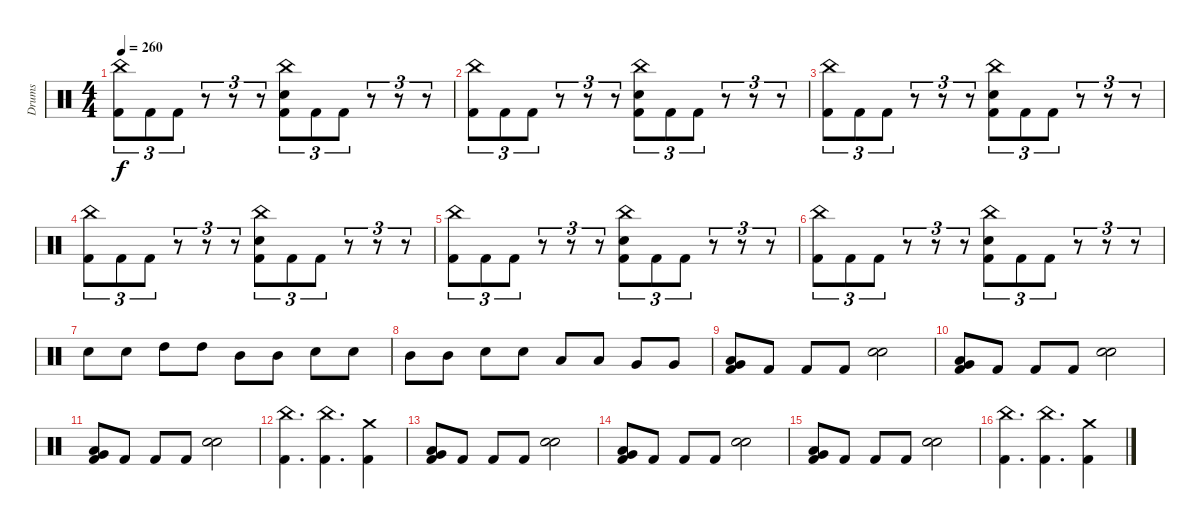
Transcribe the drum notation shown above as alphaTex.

\track ("Drums" "Drums") {instrument percussion}
\staff {score}
\articulation defaults
\ts (4 4)
\tempo 260
\clef neutral
\ks c
("China (hit)" "Kick (hit) 2").8{tu (3 2) dy f} "Kick (hit) 2".8{tu (3 2)} "Kick (hit) 2".8{tu (3 2)} r.8{tu (3 2)} r.8{tu (3 2)} r.8{tu (3 2)} ("China (hit)" "Electric Snare (hit)" "Kick (hit) 2").8{tu (3 2)} "Kick (hit) 2".8{tu (3 2)} "Kick (hit) 2".8{tu (3 2)} r.8{tu (3 2)} r.8{tu (3 2)} r.8{tu (3 2)} |
("China (hit)" "Kick (hit) 2").8{tu (3 2)} "Kick (hit) 2".8{tu (3 2)} "Kick (hit) 2".8{tu (3 2)} r.8{tu (3 2)} r.8{tu (3 2)} r.8{tu (3 2)} ("China (hit)" "Electric Snare (hit)" "Kick (hit) 2").8{tu (3 2)} "Kick (hit) 2".8{tu (3 2)} "Kick (hit) 2".8{tu (3 2)} r.8{tu (3 2)} r.8{tu (3 2)} r.8{tu (3 2)} |
("China (hit)" "Kick (hit) 2").8{tu (3 2)} "Kick (hit) 2".8{tu (3 2)} "Kick (hit) 2".8{tu (3 2)} r.8{tu (3 2)} r.8{tu (3 2)} r.8{tu (3 2)} ("China (hit)" "Electric Snare (hit)" "Kick (hit) 2").8{tu (3 2)} "Kick (hit) 2".8{tu (3 2)} "Kick (hit) 2".8{tu (3 2)} r.8{tu (3 2)} r.8{tu (3 2)} r.8{tu (3 2)} |
("China (hit)" "Kick (hit) 2").8{tu (3 2)} "Kick (hit) 2".8{tu (3 2)} "Kick (hit) 2".8{tu (3 2)} r.8{tu (3 2)} r.8{tu (3 2)} r.8{tu (3 2)} ("China (hit)" "Electric Snare (hit)" "Kick (hit) 2").8{tu (3 2)} "Kick (hit) 2".8{tu (3 2)} "Kick (hit) 2".8{tu (3 2)} r.8{tu (3 2)} r.8{tu (3 2)} r.8{tu (3 2)} |
("China (hit)" "Kick (hit) 2").8{tu (3 2)} "Kick (hit) 2".8{tu (3 2)} "Kick (hit) 2".8{tu (3 2)} r.8{tu (3 2)} r.8{tu (3 2)} r.8{tu (3 2)} ("China (hit)" "Electric Snare (hit)" "Kick (hit) 2").8{tu (3 2)} "Kick (hit) 2".8{tu (3 2)} "Kick (hit) 2".8{tu (3 2)} r.8{tu (3 2)} r.8{tu (3 2)} r.8{tu (3 2)} |
("China (hit)" "Kick (hit) 2").8{tu (3 2)} "Kick (hit) 2".8{tu (3 2)} "Kick (hit) 2".8{tu (3 2)} r.8{tu (3 2)} r.8{tu (3 2)} r.8{tu (3 2)} ("China (hit)" "Electric Snare (hit)" "Kick (hit) 2").8{tu (3 2)} "Kick (hit) 2".8{tu (3 2)} "Kick (hit) 2".8{tu (3 2)} r.8{tu (3 2)} r.8{tu (3 2)} r.8{tu (3 2)} |
"Electric Snare (hit)".8 "Electric Snare (hit)".8 "High Tom (hit)".8 "High Tom (hit)".8 "Mid Tom (hit)".8 "Mid Tom (hit)".8 "Electric Snare (hit)".8 "Electric Snare (hit)".8 |
"Mid Tom (hit)".8 "Mid Tom (hit)".8 "Electric Snare (hit)".8 "Electric Snare (hit)".8 "Low Tom (hit)".8 "Low Tom (hit)".8 "Very Low Tom (hit)".8 "Very Low Tom (hit)".8 |
("Low Tom (hit)" "Very Low Tom (hit)" "Kick (hit) 2").8 "Kick (hit) 2".8 "Kick (hit) 2".8 "Kick (hit) 2".8 ("Electric Snare (hit)" "Electric Snare (hit)").2{bu 480} |
("Low Tom (hit)" "Very Low Tom (hit)" "Kick (hit) 2").8 "Kick (hit) 2".8 "Kick (hit) 2".8 "Kick (hit) 2".8 ("Electric Snare (hit)" "Electric Snare (hit)").2{bu 480} |
("Low Tom (hit)" "Very Low Tom (hit)" "Kick (hit) 2").8 "Kick (hit) 2".8 "Kick (hit) 2".8 "Kick (hit) 2".8 ("Electric Snare (hit)" "Electric Snare (hit)").2{bu 480} |
("China (hit)" "Kick (hit) 2").4{d} ("China (hit)" "Kick (hit) 2").4{d} ("Crash medium (hit)" "Kick (hit) 2").4 |
("Low Tom (hit)" "Very Low Tom (hit)" "Kick (hit) 2").8 "Kick (hit) 2".8 "Kick (hit) 2".8 "Kick (hit) 2".8 ("Electric Snare (hit)" "Electric Snare (hit)").2{bu 480} |
("Low Tom (hit)" "Very Low Tom (hit)" "Kick (hit) 2").8 "Kick (hit) 2".8 "Kick (hit) 2".8 "Kick (hit) 2".8 ("Electric Snare (hit)" "Electric Snare (hit)").2{bu 480} |
("Low Tom (hit)" "Very Low Tom (hit)" "Kick (hit) 2").8 "Kick (hit) 2".8 "Kick (hit) 2".8 "Kick (hit) 2".8 ("Electric Snare (hit)" "Electric Snare (hit)").2{bu 480} |
("China (hit)" "Kick (hit) 2").4{d} ("China (hit)" "Kick (hit) 2").4{d} ("Crash medium (hit)" "Kick (hit) 2").4
